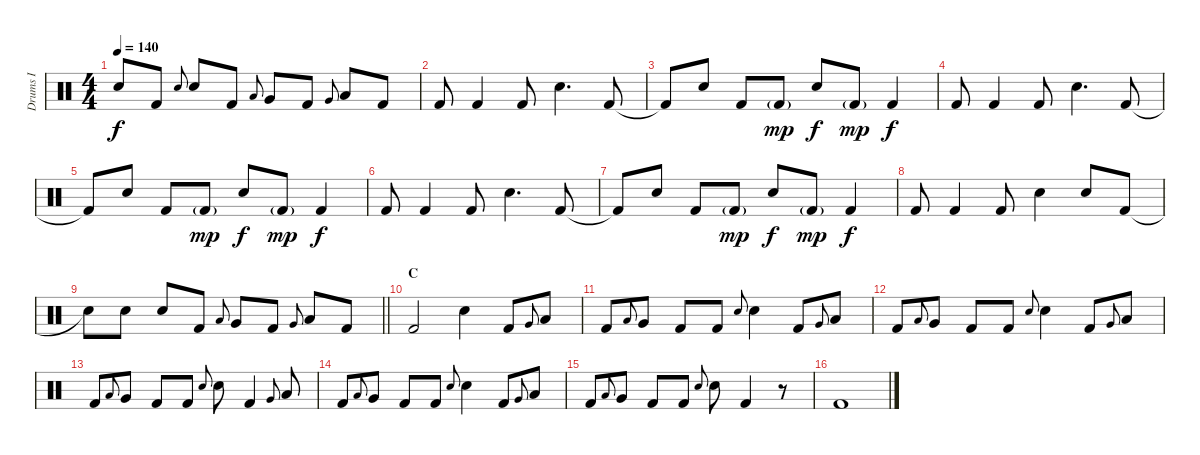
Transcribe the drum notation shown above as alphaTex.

\track ("Drums I" "Drums I") {instrument percussion}
\staff {score}
\articulation defaults
\ts (4 4)
\tempo 140
\clef neutral
\ks c "Snare (hit)"{t}.8{dy f} "Kick (hit) 2".8 "Electric Snare (hit)".8{gr onbeat} "Electric Snare (hit)".8 "Kick (hit) 2".8 "Low Tom (hit)".8{gr onbeat} "Very Low Tom (hit)".8 "Kick (hit) 2".8 "Very Low Tom (hit)".8{gr onbeat} "Low Floor Tom (hit)".8 "Kick (hit) 2".8
|
"Kick (hit) 2".8 "Kick (hit) 2".4 "Kick (hit) 2".8 "Electric Snare (hit)".4{d} "Kick (hit) 2".8 |
"Kick (hit) 2"{t}.8 "Electric Snare (hit)".8 "Kick (hit) 2".8 "Kick (hit) 2"{g}.8{dy mp} "Electric Snare (hit)".8{dy f} "Kick (hit) 2"{g}.8{dy mp} "Kick (hit) 2".4{dy f} |
"Kick (hit) 2".8 "Kick (hit) 2".4 "Kick (hit) 2".8 "Electric Snare (hit)".4{d} "Kick (hit) 2".8 |
"Kick (hit) 2"{t}.8 "Electric Snare (hit)".8 "Kick (hit) 2".8 "Kick (hit) 2"{g}.8{dy mp} "Electric Snare (hit)".8{dy f} "Kick (hit) 2"{g}.8{dy mp} "Kick (hit) 2".4{dy f} |
"Kick (hit) 2".8 "Kick (hit) 2".4 "Kick (hit) 2".8 "Electric Snare (hit)".4{d} "Kick (hit) 2".8 |
"Kick (hit) 2"{t}.8 "Electric Snare (hit)".8 "Kick (hit) 2".8 "Kick (hit) 2"{g}.8{dy mp} "Electric Snare (hit)".8{dy f} "Kick (hit) 2"{g}.8{dy mp} "Kick (hit) 2".4{dy f} |
"Kick (hit) 2".8 "Kick (hit) 2".4 "Kick (hit) 2".8 "Electric Snare (hit)".4 "Electric Snare (hit)".8 "Kick (hit) 2".8 |
\barLineRight lightlight "Snare (hit)"{t}.8 "Electric Snare (hit)".8 "Electric Snare (hit)".8 "Kick (hit) 2".8 "Low Tom (hit)".8{gr onbeat} "Very Low Tom (hit)".8 "Kick (hit) 2".8 "Very Low Tom (hit)".8{gr onbeat} "Low Floor Tom (hit)".8 "Kick (hit) 2".8
|
\section ("" "C")
"Kick (hit) 2".2 "Electric Snare (hit)".4 "Kick (hit) 2".8 "Very Low Tom (hit)".8{gr onbeat} "Low Tom (hit)".8 |
"Kick (hit) 2".8 "Low Floor Tom (hit)".8{gr onbeat} "Very Low Tom (hit)".8 "Kick (hit) 2".8 "Kick (hit) 2".8 "Electric Snare (hit)".8{gr onbeat} "Electric Snare (hit)".4 "Kick (hit) 2".8 "Very Low Tom (hit)".8{gr onbeat} "Low Tom (hit)".8 |
"Kick (hit) 2".8 "Low Floor Tom (hit)".8{gr onbeat} "Very Low Tom (hit)".8 "Kick (hit) 2".8 "Kick (hit) 2".8 "Electric Snare (hit)".8{gr onbeat} "Electric Snare (hit)".4 "Kick (hit) 2".8 "Very Low Tom (hit)".8{gr onbeat} "Low Tom (hit)".8 |
"Kick (hit) 2".8 "Low Floor Tom (hit)".8{gr onbeat} "Very Low Tom (hit)".8 "Kick (hit) 2".8 "Kick (hit) 2".8 "Electric Snare (hit)".8{gr onbeat} "Electric Snare (hit)".8 "Kick (hit) 2".4 "Very Low Tom (hit)".8{gr onbeat} "Low Tom (hit)".8 |
"Kick (hit) 2".8 "Low Floor Tom (hit)".8{gr onbeat} "Very Low Tom (hit)".8 "Kick (hit) 2".8 "Kick (hit) 2".8 "Electric Snare (hit)".8{gr onbeat} "Electric Snare (hit)".4 "Kick (hit) 2".8 "Very Low Tom (hit)".8{gr onbeat} "Low Tom (hit)".8 |
"Kick (hit) 2".8 "Low Floor Tom (hit)".8{gr onbeat} "Very Low Tom (hit)".8 "Kick (hit) 2".8 "Kick (hit) 2".8 "Electric Snare (hit)".8{gr onbeat} "Electric Snare (hit)".8 "Kick (hit) 2".4 r.8 |
"Kick (hit) 2".1
